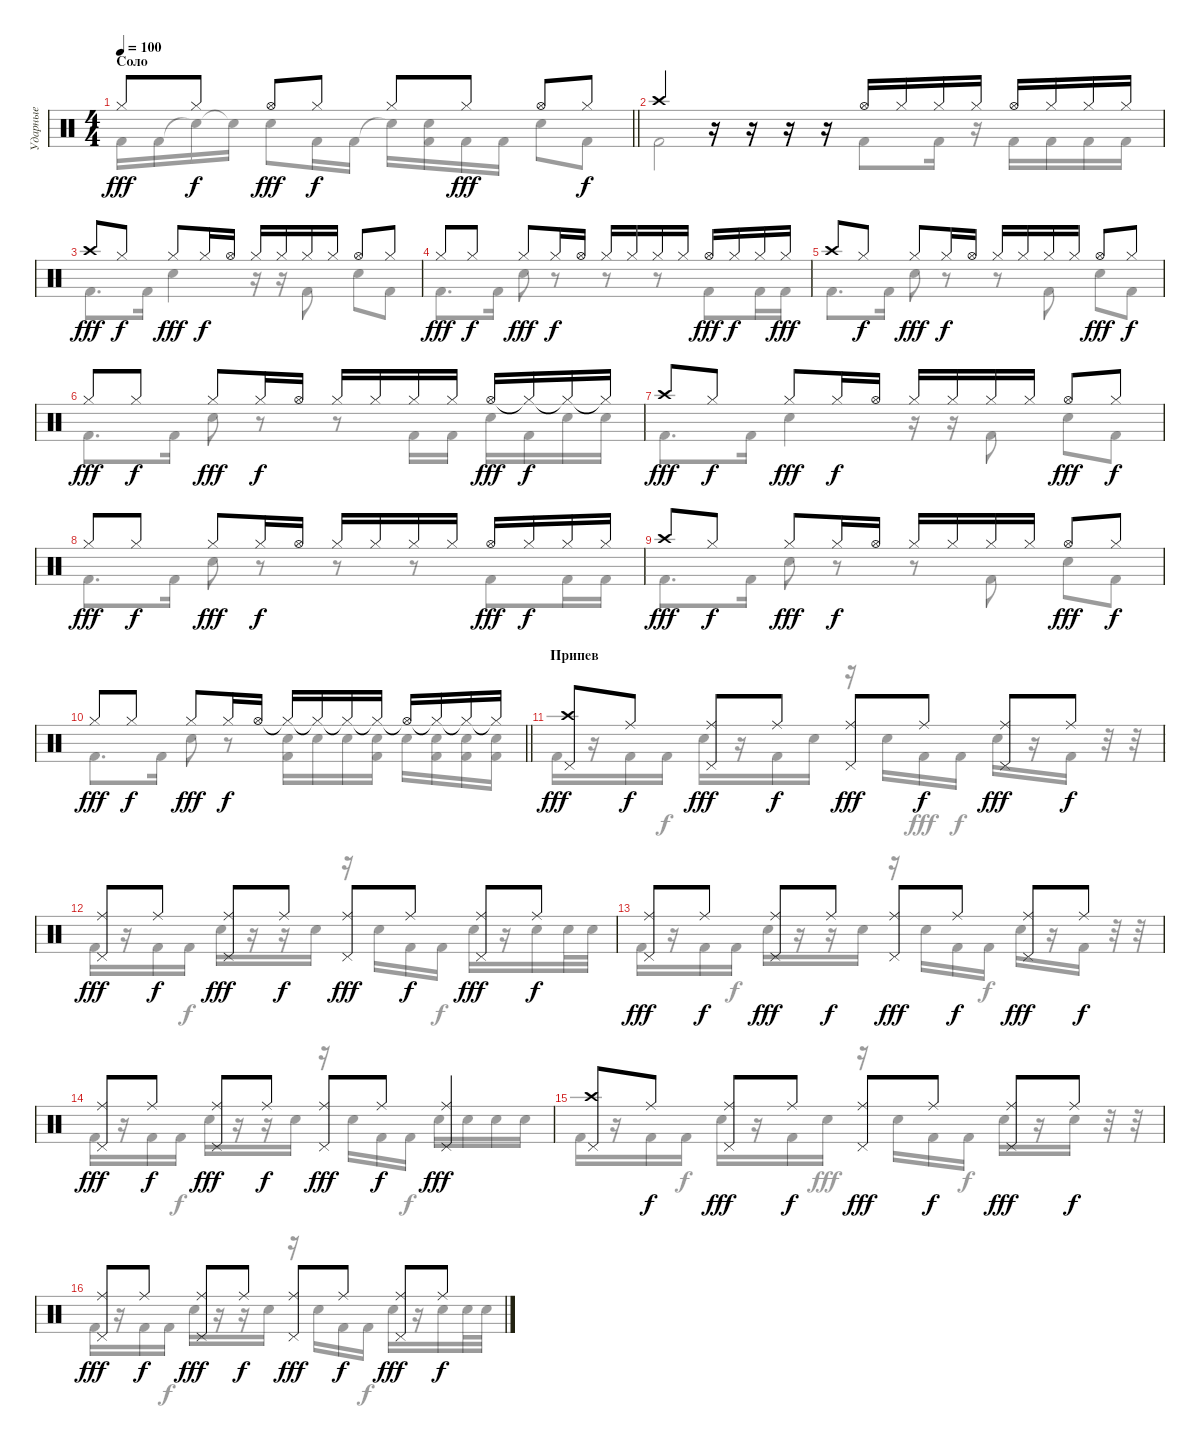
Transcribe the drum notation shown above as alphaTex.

\track ("Ударные" "Ударные") {instrument percussion}
\staff {score}
\articulation defaults
\voice
\ts (4 4)
\section ("" "Соло")
\tempo 100
\clef neutral
\barLineRight lightlight
\ks c "Hi-Hat (closed)".8{dy fff} "Hi-Hat (closed)".8{dy f} "Hi-Hat (open)".8{dy fff} "Hi-Hat (closed)".8{dy f} "Hi-Hat (closed)".8 "Hi-Hat (closed)".8{dy fff} "Hi-Hat (open)".8 "Hi-Hat (closed)".8{dy f}
|
"Crash high (hit)".4 r.16 r.16 r.16 r.16 "Hi-Hat (open)".16 "Hi-Hat (closed)".16 "Hi-Hat (closed)".16 "Hi-Hat (closed)".16 "Hi-Hat (open)".16 "Hi-Hat (closed)".16 "Hi-Hat (closed)".16 "Hi-Hat (closed)".16 |
"Crash high (hit)".8{dy fff} "Hi-Hat (closed)".8{dy f} "Hi-Hat (closed)".8{dy fff} "Hi-Hat (closed)".16{dy f} "Hi-Hat (open)".16 "Hi-Hat (closed)".16 "Hi-Hat (closed)".16 "Hi-Hat (closed)".16 "Hi-Hat (closed)".16 "Hi-Hat (open)".8 "Hi-Hat (closed)".8 |
"Hi-Hat (closed)".8{dy fff} "Hi-Hat (closed)".8{dy f} "Hi-Hat (closed)".8{dy fff} "Hi-Hat (closed)".16{dy f} "Hi-Hat (open)".16 "Hi-Hat (closed)".16 "Hi-Hat (closed)".16 "Hi-Hat (closed)".16 "Hi-Hat (closed)".16 "Hi-Hat (open)".16{dy fff} "Hi-Hat (closed)".16{dy f} "Hi-Hat (closed)".16 "Hi-Hat (closed)".16{dy fff} |
"Crash high (hit)".8 "Hi-Hat (closed)".8{dy f} "Hi-Hat (closed)".8{dy fff} "Hi-Hat (closed)".16{dy f} "Hi-Hat (open)".16 "Hi-Hat (closed)".16 "Hi-Hat (closed)".16 "Hi-Hat (closed)".16 "Hi-Hat (closed)".16 "Hi-Hat (open)".8{dy fff} "Hi-Hat (closed)".8{dy f} |
"Hi-Hat (closed)".8{dy fff} "Hi-Hat (closed)".8{dy f} "Hi-Hat (closed)".8{dy fff} "Hi-Hat (closed)".16{dy f} "Hi-Hat (open)".16 "Hi-Hat (closed)".16 "Hi-Hat (closed)".16 "Hi-Hat (closed)".16 "Hi-Hat (closed)".16 "Hi-Hat (open)".16{dy fff} "Hi-Hat (closed)"{t}.16{dy f} "Hi-Hat (closed)"{t}.16 "Hi-Hat (closed)"{t}.16 |
"Crash high (hit)".8{dy fff} "Hi-Hat (closed)".8{dy f} "Hi-Hat (closed)".8{dy fff} "Hi-Hat (closed)".16{dy f} "Hi-Hat (open)".16 "Hi-Hat (closed)".16 "Hi-Hat (closed)".16 "Hi-Hat (closed)".16 "Hi-Hat (closed)".16 "Hi-Hat (open)".8{dy fff} "Hi-Hat (closed)".8{dy f} |
"Hi-Hat (closed)".8{dy fff} "Hi-Hat (closed)".8{dy f} "Hi-Hat (closed)".8{dy fff} "Hi-Hat (closed)".16{dy f} "Hi-Hat (open)".16 "Hi-Hat (closed)".16 "Hi-Hat (closed)".16 "Hi-Hat (closed)".16 "Hi-Hat (closed)".16 "Hi-Hat (open)".16{dy fff} "Hi-Hat (closed)".16{dy f} "Hi-Hat (closed)".16 "Hi-Hat (closed)".16 |
"Crash high (hit)".8{dy fff} "Hi-Hat (closed)".8{dy f} "Hi-Hat (closed)".8{dy fff} "Hi-Hat (closed)".16{dy f} "Hi-Hat (open)".16 "Hi-Hat (closed)".16 "Hi-Hat (closed)".16 "Hi-Hat (closed)".16 "Hi-Hat (closed)".16 "Hi-Hat (open)".8{dy fff} "Hi-Hat (closed)".8{dy f} |
\barLineRight lightlight "Hi-Hat (closed)".8{dy fff} "Hi-Hat (closed)".8{dy f} "Hi-Hat (closed)".8{dy fff} "Hi-Hat (closed)".16{dy f} "Hi-Hat (open)".16 "Hi-Hat (closed)"{t}.16 "Hi-Hat (closed)"{t}.16 "Hi-Hat (closed)"{t}.16 "Hi-Hat (closed)"{t}.16 "Hi-Hat (open)"{t}.16 "Hi-Hat (closed)"{t}.16 "Hi-Hat (closed)"{t}.16 "Hi-Hat (closed)"{t}.16
|
\section ("" "Припев")
("Crash high (hit)" "Pedal Hi-Hat (hit)").8{dy fff} "Ride (middle)".8{dy f} ("Ride (middle)" "Pedal Hi-Hat (hit)").8{dy fff} "Ride (middle)".8{dy f} ("Ride (middle)" "Pedal Hi-Hat (hit)").8{dy fff} "Ride (middle)".8{dy f} ("Ride (middle)" "Pedal Hi-Hat (hit)").8{dy fff} "Ride (middle)".8{dy f} |
("Ride (middle)" "Pedal Hi-Hat (hit)").8{dy fff} "Ride (middle)".8{dy f} ("Ride (middle)" "Pedal Hi-Hat (hit)").8{dy fff} "Ride (middle)".8{dy f} ("Ride (middle)" "Pedal Hi-Hat (hit)").8{dy fff} "Ride (middle)".8{dy f} ("Ride (middle)" "Pedal Hi-Hat (hit)").8{dy fff} "Ride (middle)".8{dy f} |
("Ride (middle)" "Pedal Hi-Hat (hit)").8{dy fff} "Ride (middle)".8{dy f} ("Ride (middle)" "Pedal Hi-Hat (hit)").8{dy fff} "Ride (middle)".8{dy f} ("Ride (middle)" "Pedal Hi-Hat (hit)").8{dy fff} "Ride (middle)".8{dy f} ("Ride (middle)" "Pedal Hi-Hat (hit)").8{dy fff} "Ride (middle)".8{dy f} |
("Ride (middle)" "Pedal Hi-Hat (hit)").8{dy fff} "Ride (middle)".8{dy f} ("Ride (middle)" "Pedal Hi-Hat (hit)").8{dy fff} "Ride (middle)".8{dy f} ("Ride (middle)" "Pedal Hi-Hat (hit)").8{dy fff} "Ride (middle)".8{dy f} ("Ride (middle)" "Pedal Hi-Hat (hit)").4{dy fff} |
("Crash high (hit)" "Pedal Hi-Hat (hit)").8 "Ride (middle)".8{dy f} ("Ride (middle)" "Pedal Hi-Hat (hit)").8{dy fff} "Ride (middle)".8{dy f} ("Ride (middle)" "Pedal Hi-Hat (hit)").8{dy fff} "Ride (middle)".8{dy f} ("Ride (middle)" "Pedal Hi-Hat (hit)").8{dy fff} "Ride (middle)".8{dy f} |
("Ride (middle)" "Pedal Hi-Hat (hit)").8{dy fff} "Ride (middle)".8{dy f} ("Ride (middle)" "Pedal Hi-Hat (hit)").8{dy fff} "Ride (middle)".8{dy f} ("Ride (middle)" "Pedal Hi-Hat (hit)").8{dy fff} "Ride (middle)".8{dy f} ("Ride (middle)" "Pedal Hi-Hat (hit)").8{dy fff} "Ride (middle)".8{dy f}
\voice
\clef neutral
\ottava regular
\simile none
\barLineRight lightlight
\ks c "Kick (hit) 2".16{dy fff} "Kick (hit) 2".16 "Snare (hit)"{t}.16 "Snare (hit)"{t}.16 "Snare (hit) 2".8 "Kick (hit) 2".16 "Kick (hit) 2".16 "Snare (hit)"{t}.16
("Snare (hit) 2" "Kick (hit) 2").16 "Kick (hit) 2".16 "Kick (hit) 2".16 "Snare (hit) 2".8 "Kick (hit) 2".8{dy f} |
"Kick (hit) 2".2 "Kick (hit) 2".8 "Kick (hit) 2".16 r.16 "Kick (hit) 2".16 "Kick (hit) 2".16 "Kick (hit) 2".16 "Kick (hit) 2".16 |
"Kick (hit) 2".8{d dy fff} "Kick (hit) 2".16 "Snare (hit) 2".4 r.16 r.16 "Kick (hit) 2".8 "Snare (hit) 2".8 "Kick (hit) 2".8 |
"Kick (hit) 2".8{d} "Kick (hit) 2".16 "Snare (hit) 2".8 r.8 r.8 r.8 "Kick (hit) 2".8 "Kick (hit) 2".16 "Kick (hit) 2".16 |
"Kick (hit) 2".8{d} "Kick (hit) 2".16 "Snare (hit) 2".8 r.8 r.8 "Kick (hit) 2".8 "Snare (hit) 2".8 "Kick (hit) 2".8 |
"Kick (hit) 2".8{d} "Kick (hit) 2".16 "Snare (hit) 2".8 r.8 r.8 "Kick (hit) 2".16 "Kick (hit) 2".16 "Snare (hit) 2".16 "Kick (hit) 2".16 "Snare (hit) 2".16 "Snare (hit) 2".16 |
"Kick (hit) 2".8{d} "Kick (hit) 2".16 "Snare (hit) 2".4 r.16 r.16 "Kick (hit) 2".8 "Snare (hit) 2".8 "Kick (hit) 2".8 |
"Kick (hit) 2".8{d} "Kick (hit) 2".16 "Snare (hit) 2".8 r.8 r.8 r.8 "Kick (hit) 2".8 "Kick (hit) 2".16 "Kick (hit) 2".16 |
"Kick (hit) 2".8{d} "Kick (hit) 2".16 "Snare (hit) 2".8 r.8 r.8 "Kick (hit) 2".8 "Snare (hit) 2".8 "Kick (hit) 2".8 |
\barLineRight lightlight "Kick (hit) 2".8{d} "Kick (hit) 2".16 "Snare (hit) 2".8
r.8 ("Snare (hit) 2" "Kick (hit) 2").16 "Snare (hit) 2".16 "Snare (hit) 2".16 ("Snare (hit) 2" "Kick (hit) 2").16 "Snare (hit) 2".16 ("Snare (hit) 2" "Kick (hit) 2").16 ("Snare (hit) 2" "Kick (hit) 2").16 ("Snare (hit) 2" "Kick (hit) 2").16 |
"Kick (hit) 2".16 r.16 "Kick (hit) 2".16 "Kick (hit) 2".16{dy f} "Snare (hit) 2".16{dy fff} r.16 "Kick (hit) 2".16{dy f} "Snare (hit) 2".16 r.16 "Snare (hit) 2".16 "Kick (hit) 2".16{dy fff} "Kick (hit) 2".16{dy f} "Snare (hit) 2".16{dy fff} r.16 "Kick (hit) 2".16{dy f} r.32 r.32 |
"Kick (hit) 2".16{dy fff} r.16 "Kick (hit) 2".16 "Kick (hit) 2".16{dy f} "Snare (hit) 2".16{dy fff} r.16 r.16 "Snare (hit) 2".16 r.16 "Snare (hit) 2".16 "Kick (hit) 2".16 "Kick (hit) 2".16{dy f} "Snare (hit) 2".16{dy fff} r.16 "Snare (hit) 2".16 "Snare (hit) 2".32 "Snare (hit) 2".32 |
"Kick (hit) 2".16 r.16 "Kick (hit) 2".16 "Kick (hit) 2".16{dy f} "Snare (hit) 2".16{dy fff} r.16 r.16 "Snare (hit) 2".16 r.16 "Snare (hit) 2".16 "Kick (hit) 2".16 "Kick (hit) 2".16{dy f} "Snare (hit) 2".16{dy fff} r.16 "Kick (hit) 2".16{dy f} r.32 r.32 |
"Kick (hit) 2".16{dy fff} r.16 "Kick (hit) 2".16 "Kick (hit) 2".16{dy f} "Snare (hit) 2".16{dy fff} r.16 r.16 "Snare (hit) 2".16 r.16 "Snare (hit) 2".16 "Kick (hit) 2".16 "Kick (hit) 2".16{dy f} "Snare (hit) 2".16{dy fff} "Snare (hit) 2".16 "Snare (hit) 2".16 "Snare (hit) 2".16 |
"Kick (hit) 2".16 r.16 "Kick (hit) 2".16 "Kick (hit) 2".16{dy f} "Snare (hit) 2".16{dy fff} r.16 "Kick (hit) 2".16{dy f} "Snare (hit) 2".16{dy fff} r.16 "Snare (hit) 2".16 "Kick (hit) 2".16 "Kick (hit) 2".16{dy f} "Snare (hit) 2".16{dy fff} r.16 "Snare (hit) 2".16 r.32 r.32 |
"Kick (hit) 2".16 r.16 "Kick (hit) 2".16 "Kick (hit) 2".16{dy f} "Snare (hit) 2".16{dy fff} r.16 r.16 "Snare (hit) 2".16 r.16 "Snare (hit) 2".16 "Kick (hit) 2".16 "Kick (hit) 2".16{dy f} "Snare (hit) 2".16{dy fff} r.16 "Snare (hit) 2".16 "Snare (hit) 2".32 "Snare (hit) 2".32
